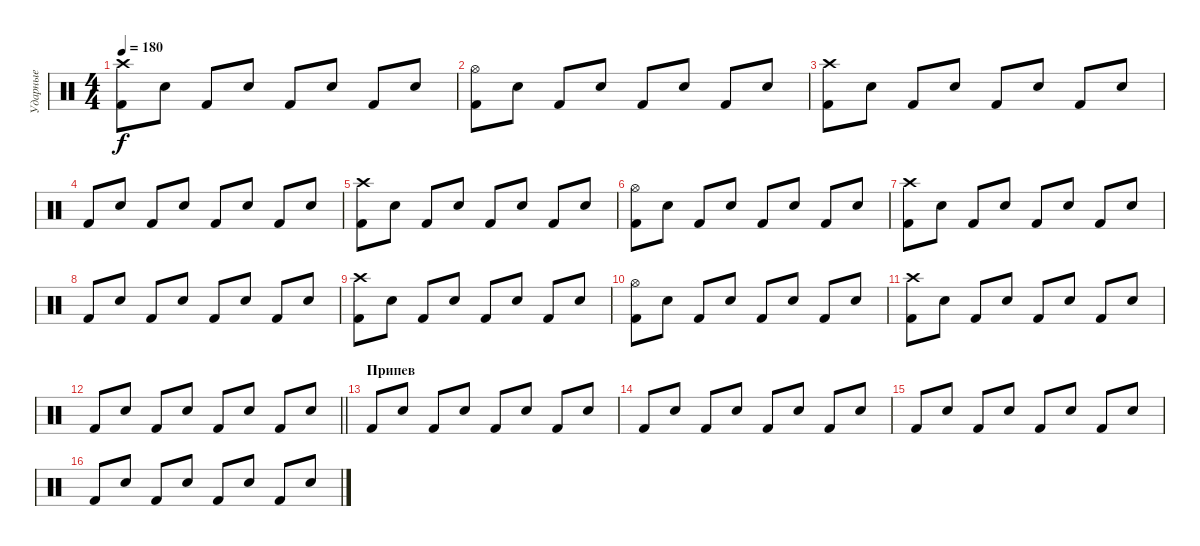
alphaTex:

\track ("Ударные" "Ударные") {instrument percussion}
\staff {score}
\articulation defaults
\ts (4 4)
\tempo 180
\clef neutral
\ks c
("Kick (hit) 2" "Crash high (hit)").8{dy f} "Snare (hit) 2".8 "Kick (hit) 2".8 "Snare (hit) 2".8 "Kick (hit) 2".8 "Snare (hit) 2".8 "Kick (hit) 2".8 "Snare (hit) 2".8 |
("Kick (hit) 2" "Hi-Hat (open)").8 "Snare (hit) 2".8 "Kick (hit) 2".8 "Snare (hit) 2".8 "Kick (hit) 2".8 "Snare (hit) 2".8 "Kick (hit) 2".8 "Snare (hit) 2".8 |
("Kick (hit) 2" "Crash high (hit)").8 "Snare (hit) 2".8 "Kick (hit) 2".8 "Snare (hit) 2".8 "Kick (hit) 2".8 "Snare (hit) 2".8 "Kick (hit) 2".8 "Snare (hit) 2".8 |
"Kick (hit) 2".8 "Snare (hit) 2".8 "Kick (hit) 2".8 "Snare (hit) 2".8 "Kick (hit) 2".8 "Snare (hit) 2".8 "Kick (hit) 2".8 "Snare (hit) 2".8 |
("Kick (hit) 2" "Crash high (hit)").8 "Snare (hit) 2".8 "Kick (hit) 2".8 "Snare (hit) 2".8 "Kick (hit) 2".8 "Snare (hit) 2".8 "Kick (hit) 2".8 "Snare (hit) 2".8 |
("Kick (hit) 2" "Hi-Hat (open)").8 "Snare (hit) 2".8 "Kick (hit) 2".8 "Snare (hit) 2".8 "Kick (hit) 2".8 "Snare (hit) 2".8 "Kick (hit) 2".8 "Snare (hit) 2".8 |
("Kick (hit) 2" "Crash high (hit)").8 "Snare (hit) 2".8 "Kick (hit) 2".8 "Snare (hit) 2".8 "Kick (hit) 2".8 "Snare (hit) 2".8 "Kick (hit) 2".8 "Snare (hit) 2".8 |
"Kick (hit) 2".8 "Snare (hit) 2".8 "Kick (hit) 2".8 "Snare (hit) 2".8 "Kick (hit) 2".8 "Snare (hit) 2".8 "Kick (hit) 2".8 "Snare (hit) 2".8 |
("Kick (hit) 2" "Crash high (hit)").8 "Snare (hit) 2".8 "Kick (hit) 2".8 "Snare (hit) 2".8 "Kick (hit) 2".8 "Snare (hit) 2".8 "Kick (hit) 2".8 "Snare (hit) 2".8 |
("Kick (hit) 2" "Hi-Hat (open)").8 "Snare (hit) 2".8 "Kick (hit) 2".8 "Snare (hit) 2".8 "Kick (hit) 2".8 "Snare (hit) 2".8 "Kick (hit) 2".8 "Snare (hit) 2".8 |
("Kick (hit) 2" "Crash high (hit)").8 "Snare (hit) 2".8 "Kick (hit) 2".8 "Snare (hit) 2".8 "Kick (hit) 2".8 "Snare (hit) 2".8 "Kick (hit) 2".8 "Snare (hit) 2".8 |
\barLineRight lightlight "Kick (hit) 2".8 "Snare (hit) 2".8 "Kick (hit) 2".8 "Snare (hit) 2".8 "Kick (hit) 2".8 "Snare (hit) 2".8 "Kick (hit) 2".8 "Snare (hit) 2".8
|
\section ("" "Припев")
"Kick (hit) 2".8 "Snare (hit) 2".8 "Kick (hit) 2".8 "Snare (hit) 2".8 "Kick (hit) 2".8 "Snare (hit) 2".8 "Kick (hit) 2".8 "Snare (hit) 2".8 |
"Kick (hit) 2".8 "Snare (hit) 2".8 "Kick (hit) 2".8 "Snare (hit) 2".8 "Kick (hit) 2".8 "Snare (hit) 2".8 "Kick (hit) 2".8 "Snare (hit) 2".8 |
"Kick (hit) 2".8 "Snare (hit) 2".8 "Kick (hit) 2".8 "Snare (hit) 2".8 "Kick (hit) 2".8 "Snare (hit) 2".8 "Kick (hit) 2".8 "Snare (hit) 2".8 |
"Kick (hit) 2".8 "Snare (hit) 2".8 "Kick (hit) 2".8 "Snare (hit) 2".8 "Kick (hit) 2".8 "Snare (hit) 2".8 "Kick (hit) 2".8 "Snare (hit) 2".8
